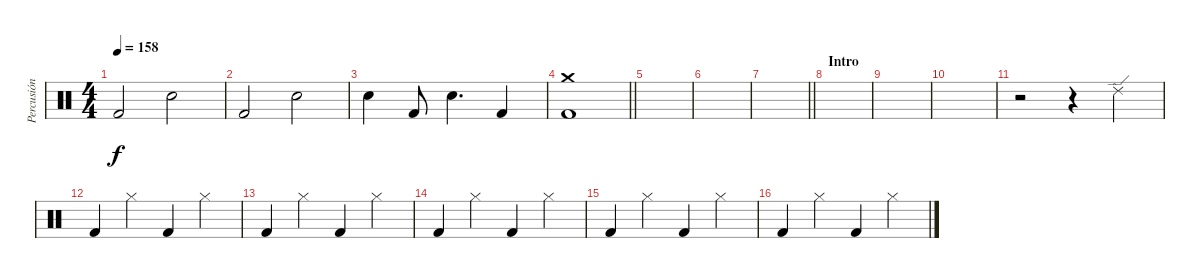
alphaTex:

\track ("Percusión" "Percusión") {instrument percussion}
\staff {score}
\articulation defaults
\ts (4 4)
\tempo 158
\clef neutral
\ks c "Kick (hit) 2".2{dy f} "Electric Snare (hit)".2
|
"Kick (hit) 2".2 "Electric Snare (hit)".2 |
"Electric Snare (hit)".4 "Kick (hit) 2".8 "Electric Snare (hit)".4{d} "Kick (hit) 2".4 |
\barLineRight lightlight
("Crash medium (hit)" "Kick (hit) 2").1 |
|
|
\barLineRight lightlight
|
\section ("" "Intro")
|
|
|
r.2 r.4 "Ride (edge) 2".4 |
"Kick (hit) 2".4 "Hi-Hat (closed)".4 "Kick (hit) 2".4 "Hi-Hat (closed)".4 |
"Kick (hit) 2".4 "Hi-Hat (closed)".4 "Kick (hit) 2".4 "Hi-Hat (closed)".4 |
"Kick (hit) 2".4 "Hi-Hat (closed)".4 "Kick (hit) 2".4 "Hi-Hat (closed)".4 |
"Kick (hit) 2".4 "Hi-Hat (closed)".4 "Kick (hit) 2".4 "Hi-Hat (closed)".4 |
"Kick (hit) 2".4 "Hi-Hat (closed)".4 "Kick (hit) 2".4 "Hi-Hat (closed)".4
